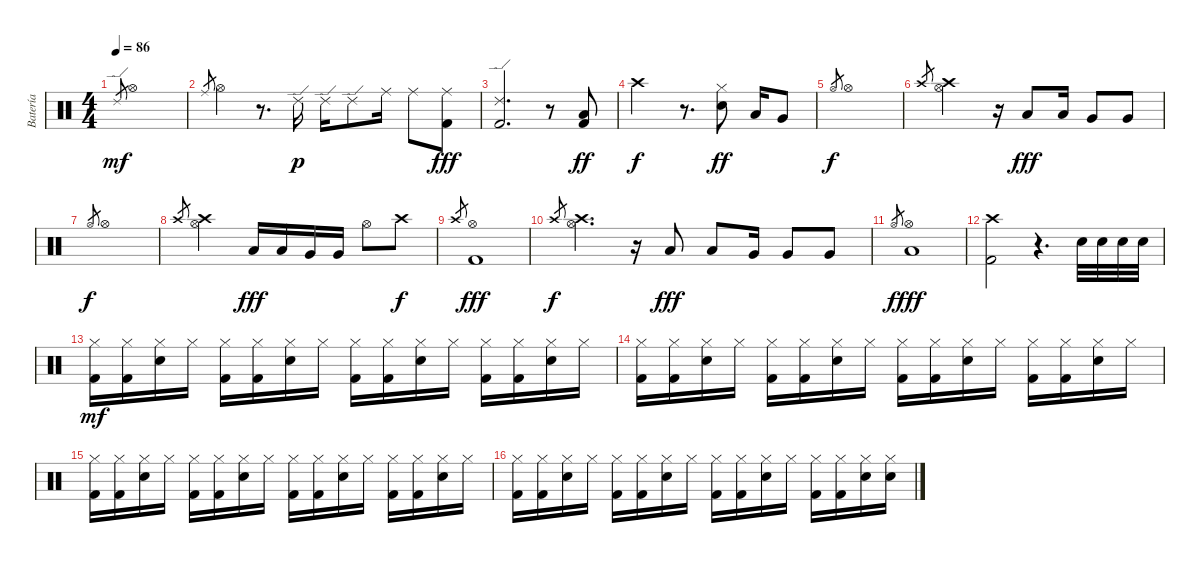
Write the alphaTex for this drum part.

\track ("Batería" "Batería") {instrument percussion}
\staff {score}
\articulation defaults
\ts (4 4)
\tempo 86
\clef neutral
\ks c "Ride (edge) 2".8{gr dy mf} "Hi-Hat (open)".1
|
"Ride (middle)".8{gr} "Hi-Hat (open)".4 r.8{d} "Ride (edge) 2".16{dy p} "Ride (edge) 2".16 "Ride (edge) 2".8 "Ride (middle)".16 "Ride (middle)".8 ("Kick (hit) 2" "Ride (middle)").8{dy fff} |
("Kick (hit) 2" "Ride (edge) 2").2{d} r.8 ("Kick (hit) 2" "Low Floor Tom (hit)").8{dy ff} |
"Crash high (hit)".2{dy f} r.8{d} ("Hi-Hat (closed)" "Snare (hit) 2").8{dy ff} "Low Tom (hit)".16 "Very Low Tom (hit)".8 |
"Hi-Hat (open)".8{gr dy f} "Hi-Hat (open)".1 |
"Crash high (hit)".8{gr} ("Hi-Hat (open)" "Crash high (hit)").2 r.16 "Low Tom (hit)".8{dy fff} "Low Tom (hit)".16 "Very Low Tom (hit)".8 "Very Low Tom (hit)".8 |
"Hi-Hat (open)".8{gr dy f} "Hi-Hat (open)".1 |
"Crash high (hit)".8{gr} ("Hi-Hat (open)" "Crash high (hit)").2 "Low Tom (hit)".16{dy fff} "Low Tom (hit)".16 "Very Low Tom (hit)".16 "Very Low Tom (hit)".16 "Hi-Hat (open)".8 "Crash high (hit)".8{dy f} |
"Crash high (hit)".8{gr} ("Kick (hit) 2" "Hi-Hat (open)").1{dy fff} |
"Crash high (hit)".8{gr dy f} ("Hi-Hat (open)" "Crash high (hit)").4{d} r.16 "Low Tom (hit)".8{dy fff} "Low Tom (hit)".8 "Very Low Tom (hit)".16 "Very Low Tom (hit)".8 "Very Low Tom (hit)".8 |
"Hi-Hat (open)".8{gr dy f} ("Low Floor Tom (hit)" "Hi-Hat (open)").1{dy fff} |
("Kick (hit) 2" "Crash high (hit)").2 r.4{d} "Electric Snare (hit)".32 "Electric Snare (hit)".32 "Electric Snare (hit)".32 "Electric Snare (hit)".32 |
("Kick (hit) 2" "Hi-Hat (closed)").16{dy mf} ("Kick (hit) 2" "Hi-Hat (closed)").16 ("Electric Snare (hit)" "Hi-Hat (closed)").16 "Hi-Hat (closed)".16 ("Kick (hit) 2" "Hi-Hat (closed)").16 ("Kick (hit) 2" "Hi-Hat (closed)").16 ("Electric Snare (hit)" "Hi-Hat (closed)").16 "Hi-Hat (closed)".16 ("Kick (hit) 2" "Hi-Hat (closed)").16 ("Kick (hit) 2" "Hi-Hat (closed)").16 ("Electric Snare (hit)" "Hi-Hat (closed)").16 "Hi-Hat (closed)".16 ("Kick (hit) 2" "Hi-Hat (closed)").16 ("Kick (hit) 2" "Hi-Hat (closed)").16 ("Electric Snare (hit)" "Hi-Hat (closed)").16 "Hi-Hat (closed)".16 |
("Kick (hit) 2" "Hi-Hat (closed)").16 ("Kick (hit) 2" "Hi-Hat (closed)").16 ("Electric Snare (hit)" "Hi-Hat (closed)").16 "Hi-Hat (closed)".16 ("Kick (hit) 2" "Hi-Hat (closed)").16 ("Kick (hit) 2" "Hi-Hat (closed)").16 ("Electric Snare (hit)" "Hi-Hat (closed)").16 "Hi-Hat (closed)".16 ("Kick (hit) 2" "Hi-Hat (closed)").16 ("Kick (hit) 2" "Hi-Hat (closed)").16 ("Electric Snare (hit)" "Hi-Hat (closed)").16 "Hi-Hat (closed)".16 ("Kick (hit) 2" "Hi-Hat (closed)").16 ("Kick (hit) 2" "Hi-Hat (closed)").16 ("Electric Snare (hit)" "Hi-Hat (closed)").16 "Hi-Hat (closed)".16 |
("Kick (hit) 2" "Hi-Hat (closed)").16 ("Kick (hit) 2" "Hi-Hat (closed)").16 ("Electric Snare (hit)" "Hi-Hat (closed)").16 "Hi-Hat (closed)".16 ("Kick (hit) 2" "Hi-Hat (closed)").16 ("Kick (hit) 2" "Hi-Hat (closed)").16 ("Electric Snare (hit)" "Hi-Hat (closed)").16 "Hi-Hat (closed)".16 ("Kick (hit) 2" "Hi-Hat (closed)").16 ("Kick (hit) 2" "Hi-Hat (closed)").16 ("Electric Snare (hit)" "Hi-Hat (closed)").16 "Hi-Hat (closed)".16 ("Kick (hit) 2" "Hi-Hat (closed)").16 ("Kick (hit) 2" "Hi-Hat (closed)").16 ("Electric Snare (hit)" "Hi-Hat (closed)").16 "Hi-Hat (closed)".16 |
("Kick (hit) 2" "Hi-Hat (closed)").16 ("Kick (hit) 2" "Hi-Hat (closed)").16 ("Electric Snare (hit)" "Hi-Hat (closed)").16 "Hi-Hat (closed)".16 ("Kick (hit) 2" "Hi-Hat (closed)").16 ("Kick (hit) 2" "Hi-Hat (closed)").16 ("Electric Snare (hit)" "Hi-Hat (closed)").16 "Hi-Hat (closed)".16 ("Kick (hit) 2" "Hi-Hat (closed)").16 ("Kick (hit) 2" "Hi-Hat (closed)").16 ("Electric Snare (hit)" "Hi-Hat (closed)").16 "Hi-Hat (closed)".16 ("Kick (hit) 2" "Hi-Hat (closed)").16 ("Kick (hit) 2" "Hi-Hat (closed)").16 ("Electric Snare (hit)" "Hi-Hat (closed)").16 ("Electric Snare (hit)" "Hi-Hat (closed)").16
